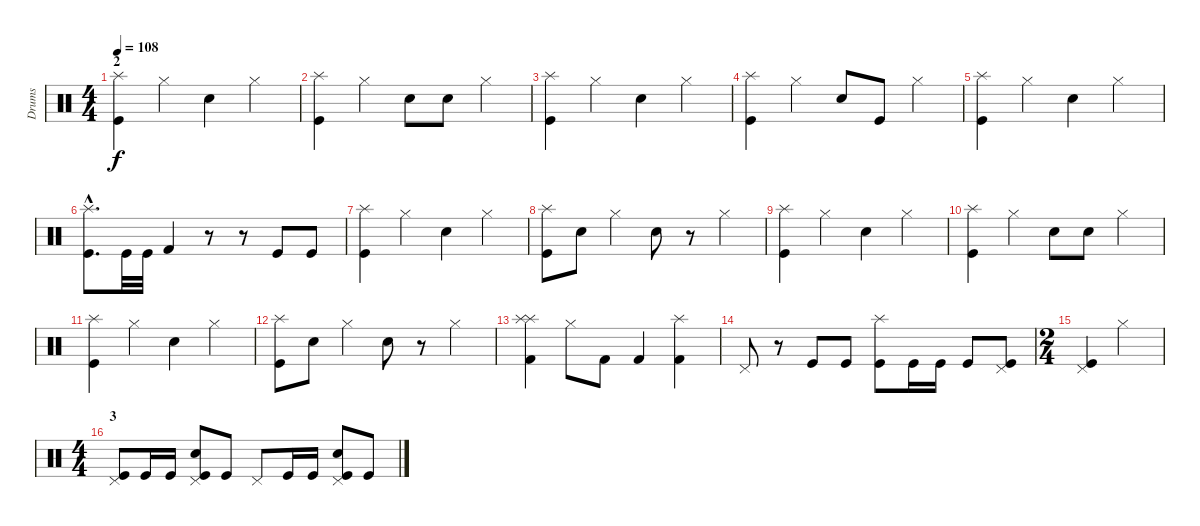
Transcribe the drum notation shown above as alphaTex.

\track ("Drums" "Drums") {instrument percussion}
\staff {score}
\articulation defaults
\ts (4 4)
\section ("" "2")
\tempo 108
\clef neutral
\ks c
("Kick (hit)" "Splash (hit)").4{dy f} "Hi-Hat (closed)".4 "Electric Snare (hit)".4 "Hi-Hat (closed)".4 |
("Kick (hit)" "Splash (hit)").4 "Hi-Hat (closed)".4 "Electric Snare (hit)".8 "Electric Snare (hit)".8 "Hi-Hat (closed)".4 |
("Kick (hit)" "Splash (hit)").4 "Hi-Hat (closed)".4 "Electric Snare (hit)".4 "Hi-Hat (closed)".4 |
("Kick (hit)" "Splash (hit)").4 "Hi-Hat (closed)".4 "Electric Snare (hit)".8 "Kick (hit)".8 "Hi-Hat (closed)".4 |
("Kick (hit)" "Splash (hit)").4 "Hi-Hat (closed)".4 "Electric Snare (hit)".4 "Hi-Hat (closed)".4 |
("Kick (hit)"{hac} "Splash (hit)"{hac}).8{d} "Kick (hit)".32 "Kick (hit)".32 "Kick (hit) 2".4 r.8 r.8 "Kick (hit)".8 "Kick (hit)".8 |
("Kick (hit)" "Splash (hit)").4 "Hi-Hat (closed)".4 "Electric Snare (hit)".4 "Hi-Hat (closed)".4 |
("Kick (hit)" "Splash (hit)").8 "Electric Snare (hit)".8 "Hi-Hat (closed)".4 "Electric Snare (hit)".8 r.8 "Hi-Hat (closed)".4 |
("Kick (hit)" "Splash (hit)").4 "Hi-Hat (closed)".4 "Electric Snare (hit)".4 "Hi-Hat (closed)".4 |
("Kick (hit)" "Splash (hit)").4 "Hi-Hat (closed)".4 "Electric Snare (hit)".8 "Electric Snare (hit)".8 "Hi-Hat (closed)".4 |
("Kick (hit)" "Splash (hit)").4 "Hi-Hat (closed)".4 "Electric Snare (hit)".4 "Hi-Hat (closed)".4 |
("Kick (hit)" "Splash (hit)").8 "Electric Snare (hit)".8 "Hi-Hat (closed)".4 "Electric Snare (hit)".8 r.8 "Hi-Hat (closed)".4 |
("Kick (hit) 2" "Splash (hit)" "Splash (hit)").4 "Hi-Hat (closed)".8 "Kick (hit) 2".8 "Kick (hit) 2".4 ("Kick (hit) 2" "Splash (hit)").4 |
"Pedal Hi-Hat (hit)".8 r.8 "Kick (hit)".8 "Kick (hit)".8 ("Kick (hit)" "Splash (hit)").8 "Kick (hit)".16 "Kick (hit)".16 "Kick (hit)".8 ("Kick (hit)" "Pedal Hi-Hat (hit)").8 |
\ts (2 4)
("Kick (hit)" "Pedal Hi-Hat (hit)").4 "Hi-Hat (closed)".4 |
\ts (4 4)
\section ("" "3")
("Kick (hit)" "Pedal Hi-Hat (hit)").8 "Kick (hit)".16 "Kick (hit)".16 ("Kick (hit)" "Electric Snare (hit)" "Pedal Hi-Hat (hit)").8 "Kick (hit)".8 "Pedal Hi-Hat (hit)".8 "Kick (hit)".16 "Kick (hit)".16 ("Kick (hit)" "Electric Snare (hit)" "Pedal Hi-Hat (hit)").8 "Kick (hit)".8
